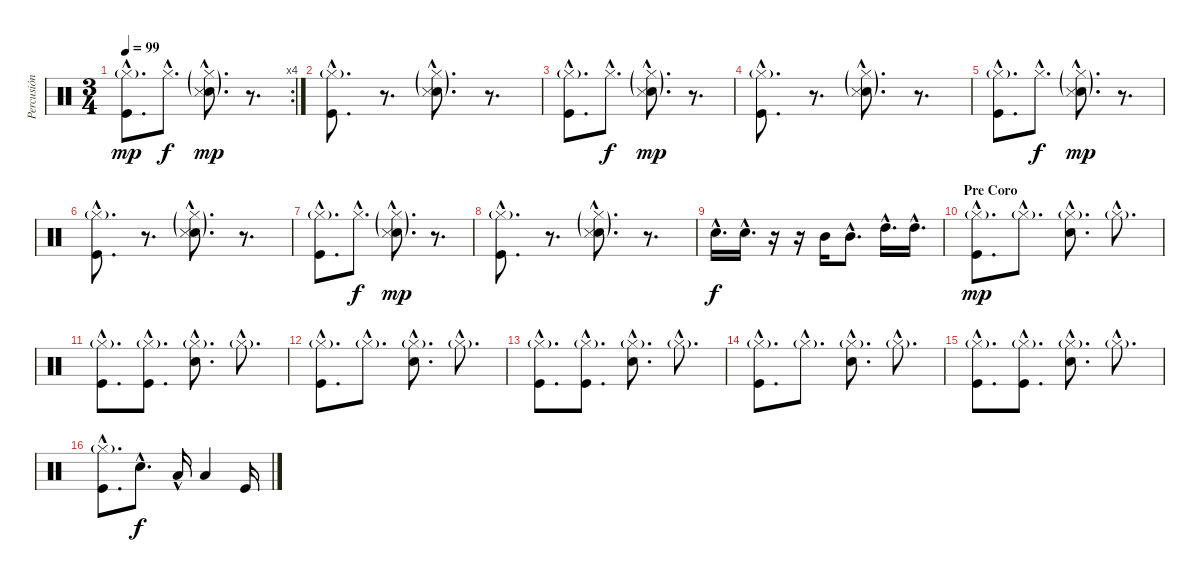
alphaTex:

\track ("Percusión" "Percusión") {instrument percussion}
\staff {score}
\articulation defaults
\rc 4
\ts (3 4)
\tempo 99
\clef neutral
\ks c
("Kick (hit)"{hac} "Hi-Hat (closed)"{g hac}).8{d dy mp} "Hi-Hat (closed)"{hac}.8{d dy f} ("Electric Snare (hit)"{g hac} "Hi-Hat (closed)"{g hac} "Metronome (hit)"{hac}).8{d dy mp} r.8{d} |
("Kick (hit)"{hac} "Hi-Hat (closed)"{g hac}).8{d} r.8{d} ("Electric Snare (hit)"{g hac} "Hi-Hat (closed)"{g hac} "Metronome (hit)"{hac}).8{d} r.8{d} |
("Kick (hit)"{hac} "Hi-Hat (closed)"{g hac}).8{d} "Hi-Hat (closed)"{hac}.8{d dy f} ("Electric Snare (hit)"{g hac} "Hi-Hat (closed)"{g hac} "Metronome (hit)"{hac}).8{d dy mp} r.8{d} |
("Kick (hit)"{hac} "Hi-Hat (closed)"{g hac}).8{d} r.8{d} ("Electric Snare (hit)"{g hac} "Hi-Hat (closed)"{g hac} "Metronome (hit)"{hac}).8{d} r.8{d} |
("Kick (hit)"{hac} "Hi-Hat (closed)"{g hac}).8{d} "Hi-Hat (closed)"{hac}.8{d dy f} ("Electric Snare (hit)"{g hac} "Hi-Hat (closed)"{g hac} "Metronome (hit)"{hac}).8{d dy mp} r.8{d} |
("Kick (hit)"{hac} "Hi-Hat (closed)"{g hac}).8{d} r.8{d} ("Electric Snare (hit)"{g hac} "Hi-Hat (closed)"{g hac} "Metronome (hit)"{hac}).8{d} r.8{d} |
("Kick (hit)"{hac} "Hi-Hat (closed)"{g hac}).8{d} "Hi-Hat (closed)"{hac}.8{d dy f} ("Electric Snare (hit)"{g hac} "Hi-Hat (closed)"{g hac} "Metronome (hit)"{hac}).8{d dy mp} r.8{d} |
("Kick (hit)"{hac} "Hi-Hat (closed)"{g hac}).8{d} r.8{d} ("Electric Snare (hit)"{g hac} "Hi-Hat (closed)"{g hac} "Metronome (hit)"{hac}).8{d} r.8{d} |
"Electric Snare (hit)"{hac}.16{d dy f} "Electric Snare (hit)"{hac}.16{d} r.16 r.16 "Mid Tom (hit)".16 "Mid Tom (hit)"{hac}.8{d} "High Tom (hit)"{hac}.16{d} "High Tom (hit)"{hac}.16{d} |
\section ("" "Pre Coro")
("Kick (hit)"{hac} "Hi-Hat (closed)"{g hac}).8{d dy mp} "Hi-Hat (closed)"{g hac}.8{d} ("Snare (hit) 2"{hac} "Hi-Hat (closed)"{g hac}).8{d} "Hi-Hat (closed)"{g hac}.8{d} |
("Kick (hit)"{hac} "Hi-Hat (closed)"{g hac}).8{d} ("Kick (hit)"{hac} "Hi-Hat (closed)"{g hac}).8{d} ("Snare (hit) 2"{hac} "Hi-Hat (closed)"{g hac}).8{d} "Hi-Hat (closed)"{g hac}.8{d} |
("Kick (hit)"{hac} "Hi-Hat (closed)"{g hac}).8{d} "Hi-Hat (closed)"{g hac}.8{d} ("Snare (hit) 2"{hac} "Hi-Hat (closed)"{g hac}).8{d} "Hi-Hat (closed)"{g hac}.8{d} |
("Kick (hit)"{hac} "Hi-Hat (closed)"{g hac}).8{d} ("Kick (hit)"{hac} "Hi-Hat (closed)"{g hac}).8{d} ("Snare (hit) 2"{hac} "Hi-Hat (closed)"{g hac}).8{d} "Hi-Hat (closed)"{g hac}.8{d} |
("Kick (hit)"{hac} "Hi-Hat (closed)"{g hac}).8{d} "Hi-Hat (closed)"{g hac}.8{d} ("Snare (hit) 2"{hac} "Hi-Hat (closed)"{g hac}).8{d} "Hi-Hat (closed)"{g hac}.8{d} |
("Kick (hit)"{hac} "Hi-Hat (closed)"{g hac}).8{d} ("Kick (hit)"{hac} "Hi-Hat (closed)"{g hac}).8{d} ("Snare (hit) 2"{hac} "Hi-Hat (closed)"{g hac}).8{d} "Hi-Hat (closed)"{g hac}.8{d} |
("Kick (hit)"{hac} "Hi-Hat (closed)"{g hac}).8{d} "Snare (hit) 2"{hac}.8{d dy f} "Low Tom (hit)"{hac}.16 "Low Tom (hit)".4 "Kick (hit)".16
